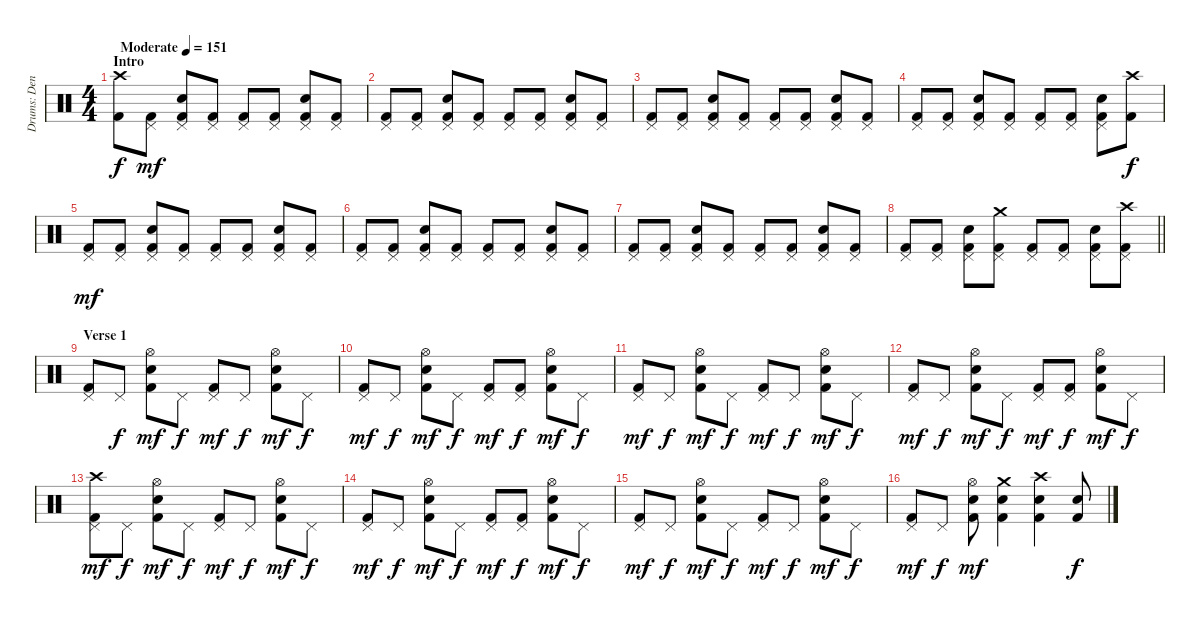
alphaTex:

\track ("Drums: Denny Carmassi" "Drums: Den") {instrument percussion}
\staff {score}
\articulation defaults
\ts (4 4)
\section ("" "Intro")
\tempo (151 "Moderate")
\clef neutral
\ks c
("Crash high (hit)" "Kick (hit) 2").8{dy f} ("Pedal Hi-Hat (hit)" "Kick (hit) 2").8{dy mf} ("Pedal Hi-Hat (hit)" "Snare (hit) 2" "Kick (hit) 2").8 ("Pedal Hi-Hat (hit)" "Kick (hit) 2").8 ("Pedal Hi-Hat (hit)" "Kick (hit) 2").8 ("Pedal Hi-Hat (hit)" "Kick (hit) 2").8 ("Pedal Hi-Hat (hit)" "Snare (hit) 2" "Kick (hit) 2").8 ("Pedal Hi-Hat (hit)" "Kick (hit) 2").8 |
("Pedal Hi-Hat (hit)" "Kick (hit) 2").8 ("Pedal Hi-Hat (hit)" "Kick (hit) 2").8 ("Pedal Hi-Hat (hit)" "Snare (hit) 2" "Kick (hit) 2").8 ("Pedal Hi-Hat (hit)" "Kick (hit) 2").8 ("Pedal Hi-Hat (hit)" "Kick (hit) 2").8 ("Pedal Hi-Hat (hit)" "Kick (hit) 2").8 ("Pedal Hi-Hat (hit)" "Snare (hit) 2" "Kick (hit) 2").8 ("Pedal Hi-Hat (hit)" "Kick (hit) 2").8 |
("Pedal Hi-Hat (hit)" "Kick (hit) 2").8 ("Pedal Hi-Hat (hit)" "Kick (hit) 2").8 ("Pedal Hi-Hat (hit)" "Snare (hit) 2" "Kick (hit) 2").8 ("Pedal Hi-Hat (hit)" "Kick (hit) 2").8 ("Pedal Hi-Hat (hit)" "Kick (hit) 2").8 ("Pedal Hi-Hat (hit)" "Kick (hit) 2").8 ("Pedal Hi-Hat (hit)" "Snare (hit) 2" "Kick (hit) 2").8 ("Pedal Hi-Hat (hit)" "Kick (hit) 2").8 |
("Pedal Hi-Hat (hit)" "Kick (hit) 2").8 ("Pedal Hi-Hat (hit)" "Kick (hit) 2").8 ("Pedal Hi-Hat (hit)" "Snare (hit) 2" "Kick (hit) 2").8 ("Pedal Hi-Hat (hit)" "Kick (hit) 2").8 ("Pedal Hi-Hat (hit)" "Kick (hit) 2").8 ("Pedal Hi-Hat (hit)" "Kick (hit) 2").8 ("Pedal Hi-Hat (hit)" "Snare (hit) 2" "Kick (hit) 2").8 ("Crash high (hit)" "Kick (hit) 2").8{dy f} |
("Pedal Hi-Hat (hit)" "Kick (hit) 2").8{dy mf} ("Pedal Hi-Hat (hit)" "Kick (hit) 2").8 ("Pedal Hi-Hat (hit)" "Snare (hit) 2" "Kick (hit) 2").8 ("Pedal Hi-Hat (hit)" "Kick (hit) 2").8 ("Pedal Hi-Hat (hit)" "Kick (hit) 2").8 ("Pedal Hi-Hat (hit)" "Kick (hit) 2").8 ("Pedal Hi-Hat (hit)" "Snare (hit) 2" "Kick (hit) 2").8 ("Pedal Hi-Hat (hit)" "Kick (hit) 2").8 |
("Pedal Hi-Hat (hit)" "Kick (hit) 2").8 ("Pedal Hi-Hat (hit)" "Kick (hit) 2").8 ("Pedal Hi-Hat (hit)" "Snare (hit) 2" "Kick (hit) 2").8 ("Pedal Hi-Hat (hit)" "Kick (hit) 2").8 ("Pedal Hi-Hat (hit)" "Kick (hit) 2").8 ("Pedal Hi-Hat (hit)" "Kick (hit) 2").8 ("Pedal Hi-Hat (hit)" "Snare (hit) 2" "Kick (hit) 2").8 ("Pedal Hi-Hat (hit)" "Kick (hit) 2").8 |
("Pedal Hi-Hat (hit)" "Kick (hit) 2").8 ("Pedal Hi-Hat (hit)" "Kick (hit) 2").8 ("Pedal Hi-Hat (hit)" "Snare (hit) 2" "Kick (hit) 2").8 ("Pedal Hi-Hat (hit)" "Kick (hit) 2").8 ("Pedal Hi-Hat (hit)" "Kick (hit) 2").8 ("Pedal Hi-Hat (hit)" "Kick (hit) 2").8 ("Pedal Hi-Hat (hit)" "Snare (hit) 2" "Kick (hit) 2").8 ("Pedal Hi-Hat (hit)" "Kick (hit) 2").8 |
\barLineRight lightlight
("Pedal Hi-Hat (hit)" "Kick (hit) 2").8 ("Pedal Hi-Hat (hit)" "Kick (hit) 2").8 ("Pedal Hi-Hat (hit)" "Snare (hit) 2" "Kick (hit) 2").8 ("Crash medium (hit)" "Pedal Hi-Hat (hit)" "Kick (hit) 2").8 ("Pedal Hi-Hat (hit)" "Kick (hit) 2").8 ("Pedal Hi-Hat (hit)" "Kick (hit) 2").8 ("Pedal Hi-Hat (hit)" "Snare (hit) 2" "Kick (hit) 2").8 ("Crash high (hit)" "Pedal Hi-Hat (hit)" "Kick (hit) 2").8 |
\section ("" "Verse 1")
("Pedal Hi-Hat (hit)" "Kick (hit) 2").8 "Pedal Hi-Hat (hit)".8{dy f} ("Hi-Hat (open)" "Snare (hit) 2" "Kick (hit) 2").8{dy mf} "Pedal Hi-Hat (hit)".8{dy f} ("Pedal Hi-Hat (hit)" "Kick (hit) 2").8{dy mf} "Pedal Hi-Hat (hit)".8{dy f} ("Hi-Hat (open)" "Snare (hit) 2" "Kick (hit) 2").8{dy mf} "Pedal Hi-Hat (hit)".8{dy f} |
("Pedal Hi-Hat (hit)" "Kick (hit) 2").8{dy mf} "Pedal Hi-Hat (hit)".8{dy f} ("Hi-Hat (open)" "Snare (hit) 2" "Kick (hit) 2").8{dy mf} "Pedal Hi-Hat (hit)".8{dy f} ("Pedal Hi-Hat (hit)" "Kick (hit) 2").8{dy mf} ("Pedal Hi-Hat (hit)" "Kick (hit) 2").8{dy f} ("Hi-Hat (open)" "Snare (hit) 2" "Kick (hit) 2").8{dy mf} "Pedal Hi-Hat (hit)".8{dy f} |
("Pedal Hi-Hat (hit)" "Kick (hit) 2").8{dy mf} "Pedal Hi-Hat (hit)".8{dy f} ("Hi-Hat (open)" "Snare (hit) 2" "Kick (hit) 2").8{dy mf} "Pedal Hi-Hat (hit)".8{dy f} ("Pedal Hi-Hat (hit)" "Kick (hit) 2").8{dy mf} "Pedal Hi-Hat (hit)".8{dy f} ("Hi-Hat (open)" "Snare (hit) 2" "Kick (hit) 2").8{dy mf} "Pedal Hi-Hat (hit)".8{dy f} |
("Pedal Hi-Hat (hit)" "Kick (hit) 2").8{dy mf} "Pedal Hi-Hat (hit)".8{dy f} ("Hi-Hat (open)" "Snare (hit) 2" "Kick (hit) 2").8{dy mf} "Pedal Hi-Hat (hit)".8{dy f} ("Pedal Hi-Hat (hit)" "Kick (hit) 2").8{dy mf} ("Pedal Hi-Hat (hit)" "Kick (hit) 2").8{dy f} ("Hi-Hat (open)" "Snare (hit) 2" "Kick (hit) 2").8{dy mf} "Pedal Hi-Hat (hit)".8{dy f} |
("Crash high (hit)" "Pedal Hi-Hat (hit)" "Kick (hit) 2").8{dy mf} "Pedal Hi-Hat (hit)".8{dy f} ("Hi-Hat (open)" "Snare (hit) 2" "Kick (hit) 2").8{dy mf} "Pedal Hi-Hat (hit)".8{dy f} ("Pedal Hi-Hat (hit)" "Kick (hit) 2").8{dy mf} "Pedal Hi-Hat (hit)".8{dy f} ("Hi-Hat (open)" "Snare (hit) 2" "Kick (hit) 2").8{dy mf} "Pedal Hi-Hat (hit)".8{dy f} |
("Pedal Hi-Hat (hit)" "Kick (hit) 2").8{dy mf} "Pedal Hi-Hat (hit)".8{dy f} ("Hi-Hat (open)" "Snare (hit) 2" "Kick (hit) 2").8{dy mf} "Pedal Hi-Hat (hit)".8{dy f} ("Pedal Hi-Hat (hit)" "Kick (hit) 2").8{dy mf} ("Pedal Hi-Hat (hit)" "Kick (hit) 2").8{dy f} ("Hi-Hat (open)" "Snare (hit) 2" "Kick (hit) 2").8{dy mf} "Pedal Hi-Hat (hit)".8{dy f} |
("Pedal Hi-Hat (hit)" "Kick (hit) 2").8{dy mf} "Pedal Hi-Hat (hit)".8{dy f} ("Hi-Hat (open)" "Snare (hit) 2" "Kick (hit) 2").8{dy mf} "Pedal Hi-Hat (hit)".8{dy f} ("Pedal Hi-Hat (hit)" "Kick (hit) 2").8{dy mf} "Pedal Hi-Hat (hit)".8{dy f} ("Hi-Hat (open)" "Snare (hit) 2" "Kick (hit) 2").8{dy mf} "Pedal Hi-Hat (hit)".8{dy f} |
("Pedal Hi-Hat (hit)" "Kick (hit) 2").8{dy mf} "Pedal Hi-Hat (hit)".8{dy f} ("Hi-Hat (open)" "Snare (hit) 2" "Kick (hit) 2").8{dy mf} ("Crash medium (hit)" "Snare (hit) 2" "Kick (hit) 2").4 ("Crash high (hit)" "Snare (hit) 2" "Kick (hit) 2").4 ("Snare (hit) 2" "Kick (hit) 2").8{dy f}
